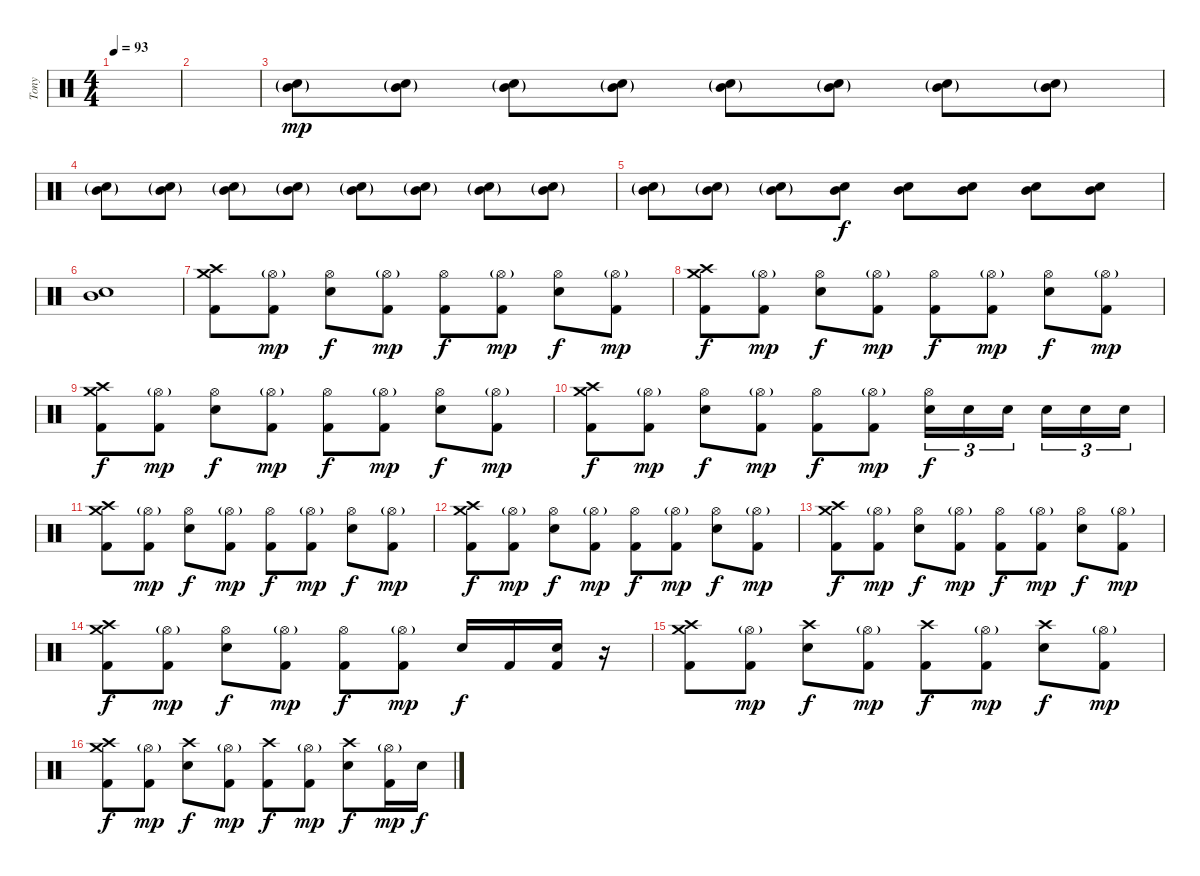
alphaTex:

\track ("Tony" "Tony") {instrument percussion}
\staff {score}
\articulation defaults
\ts (4 4)
\tempo 93
\clef neutral
\ks c
|
|
("Electric Snare (hit)"{g} "Mid Tom (hit)"{g}).8{dy mp} ("Electric Snare (hit)"{g} "Mid Tom (hit)"{g}).8 ("Electric Snare (hit)"{g} "Mid Tom (hit)"{g}).8 ("Electric Snare (hit)"{g} "Mid Tom (hit)"{g}).8 ("Electric Snare (hit)"{g} "Mid Tom (hit)"{g}).8 ("Electric Snare (hit)"{g} "Mid Tom (hit)"{g}).8 ("Electric Snare (hit)"{g} "Mid Tom (hit)"{g}).8 ("Electric Snare (hit)"{g} "Mid Tom (hit)"{g}).8 |
("Electric Snare (hit)"{g} "Mid Tom (hit)"{g}).8 ("Electric Snare (hit)"{g} "Mid Tom (hit)"{g}).8 ("Electric Snare (hit)"{g} "Mid Tom (hit)"{g}).8 ("Electric Snare (hit)"{g} "Mid Tom (hit)"{g}).8 ("Electric Snare (hit)"{g} "Mid Tom (hit)"{g}).8 ("Electric Snare (hit)"{g} "Mid Tom (hit)"{g}).8 ("Electric Snare (hit)"{g} "Mid Tom (hit)"{g}).8 ("Electric Snare (hit)"{g} "Mid Tom (hit)"{g}).8 |
("Electric Snare (hit)"{g} "Mid Tom (hit)"{g}).8 ("Electric Snare (hit)"{g} "Mid Tom (hit)"{g}).8 ("Electric Snare (hit)"{g} "Mid Tom (hit)"{g}).8 ("Electric Snare (hit)" "Mid Tom (hit)").8{dy f} ("Electric Snare (hit)" "Mid Tom (hit)").8 ("Electric Snare (hit)" "Mid Tom (hit)").8 ("Electric Snare (hit)" "Mid Tom (hit)").8 ("Electric Snare (hit)" "Mid Tom (hit)").8 |
("Electric Snare (hit)" "Mid Tom (hit)").1 |
("Crash high (hit)" "Crash medium (hit)" "Kick (hit) 2").8 ("Hi-Hat (open)"{g} "Kick (hit) 2").8{dy mp} ("Hi-Hat (open)" "Electric Snare (hit)").8{dy f} ("Hi-Hat (open)"{g} "Kick (hit) 2").8{dy mp} ("Hi-Hat (open)" "Kick (hit) 2").8{dy f} ("Hi-Hat (open)"{g} "Kick (hit) 2").8{dy mp} ("Hi-Hat (open)" "Electric Snare (hit)").8{dy f} ("Hi-Hat (open)"{g} "Kick (hit) 2").8{dy mp} |
("Crash high (hit)" "Crash medium (hit)" "Kick (hit) 2").8{dy f} ("Hi-Hat (open)"{g} "Kick (hit) 2").8{dy mp} ("Hi-Hat (open)" "Electric Snare (hit)").8{dy f} ("Hi-Hat (open)"{g} "Kick (hit) 2").8{dy mp} ("Hi-Hat (open)" "Kick (hit) 2").8{dy f} ("Hi-Hat (open)"{g} "Kick (hit) 2").8{dy mp} ("Hi-Hat (open)" "Electric Snare (hit)").8{dy f} ("Hi-Hat (open)"{g} "Kick (hit) 2").8{dy mp} |
("Crash high (hit)" "Crash medium (hit)" "Kick (hit) 2").8{dy f} ("Hi-Hat (open)"{g} "Kick (hit) 2").8{dy mp} ("Hi-Hat (open)" "Electric Snare (hit)").8{dy f} ("Hi-Hat (open)"{g} "Kick (hit) 2").8{dy mp} ("Hi-Hat (open)" "Kick (hit) 2").8{dy f} ("Hi-Hat (open)"{g} "Kick (hit) 2").8{dy mp} ("Hi-Hat (open)" "Electric Snare (hit)").8{dy f} ("Hi-Hat (open)"{g} "Kick (hit) 2").8{dy mp} |
("Crash high (hit)" "Crash medium (hit)" "Kick (hit) 2").8{dy f} ("Hi-Hat (open)"{g} "Kick (hit) 2").8{dy mp} ("Hi-Hat (open)" "Electric Snare (hit)").8{dy f} ("Hi-Hat (open)"{g} "Kick (hit) 2").8{dy mp} ("Hi-Hat (open)" "Kick (hit) 2").8{dy f} ("Hi-Hat (open)"{g} "Kick (hit) 2").8{dy mp} ("Hi-Hat (open)" "Electric Snare (hit)").16{tu (3 2) dy f} "Electric Snare (hit)".16{tu (3 2)} "Electric Snare (hit)".16{tu (3 2) beam splitsecondary} "Electric Snare (hit)".16{tu (3 2)} "Electric Snare (hit)".16{tu (3 2)} "Electric Snare (hit)".16{tu (3 2)} |
("Crash high (hit)" "Crash medium (hit)" "Kick (hit) 2").8 ("Hi-Hat (open)"{g} "Kick (hit) 2").8{dy mp} ("Hi-Hat (open)" "Electric Snare (hit)").8{dy f} ("Hi-Hat (open)"{g} "Kick (hit) 2").8{dy mp} ("Hi-Hat (open)" "Kick (hit) 2").8{dy f} ("Hi-Hat (open)"{g} "Kick (hit) 2").8{dy mp} ("Hi-Hat (open)" "Electric Snare (hit)").8{dy f} ("Hi-Hat (open)"{g} "Kick (hit) 2").8{dy mp} |
("Crash high (hit)" "Crash medium (hit)" "Kick (hit) 2").8{dy f} ("Hi-Hat (open)"{g} "Kick (hit) 2").8{dy mp} ("Hi-Hat (open)" "Electric Snare (hit)").8{dy f} ("Hi-Hat (open)"{g} "Kick (hit) 2").8{dy mp} ("Hi-Hat (open)" "Kick (hit) 2").8{dy f} ("Hi-Hat (open)"{g} "Kick (hit) 2").8{dy mp} ("Hi-Hat (open)" "Electric Snare (hit)").8{dy f} ("Hi-Hat (open)"{g} "Kick (hit) 2").8{dy mp} |
("Crash high (hit)" "Crash medium (hit)" "Kick (hit) 2").8{dy f} ("Hi-Hat (open)"{g} "Kick (hit) 2").8{dy mp} ("Hi-Hat (open)" "Electric Snare (hit)").8{dy f} ("Hi-Hat (open)"{g} "Kick (hit) 2").8{dy mp} ("Hi-Hat (open)" "Kick (hit) 2").8{dy f} ("Hi-Hat (open)"{g} "Kick (hit) 2").8{dy mp} ("Hi-Hat (open)" "Electric Snare (hit)").8{dy f} ("Hi-Hat (open)"{g} "Kick (hit) 2").8{dy mp} |
("Crash high (hit)" "Crash medium (hit)" "Kick (hit) 2").8{dy f} ("Hi-Hat (open)"{g} "Kick (hit) 2").8{dy mp} ("Hi-Hat (open)" "Electric Snare (hit)").8{dy f} ("Hi-Hat (open)"{g} "Kick (hit) 2").8{dy mp} ("Hi-Hat (open)" "Kick (hit) 2").8{dy f} ("Hi-Hat (open)"{g} "Kick (hit) 2").8{dy mp} "Electric Snare (hit)".16{dy f} "Kick (hit) 2".16 ("Electric Snare (hit)" "Kick (hit) 2").16 r.16 |
("Crash high (hit)" "Crash medium (hit)" "Kick (hit) 2").8 ("Hi-Hat (open)"{g} "Kick (hit) 2").8{dy mp} ("Crash high (hit)" "Electric Snare (hit)").8{dy f} ("Hi-Hat (open)"{g} "Kick (hit) 2").8{dy mp} ("Crash high (hit)" "Kick (hit) 2").8{dy f} ("Hi-Hat (open)"{g} "Kick (hit) 2").8{dy mp} ("Crash high (hit)" "Electric Snare (hit)").8{dy f} ("Hi-Hat (open)"{g} "Kick (hit) 2").8{dy mp} |
("Crash high (hit)" "Crash medium (hit)" "Kick (hit) 2").8{dy f} ("Hi-Hat (open)"{g} "Kick (hit) 2").8{dy mp} ("Crash high (hit)" "Electric Snare (hit)").8{dy f} ("Hi-Hat (open)"{g} "Kick (hit) 2").8{dy mp} ("Crash high (hit)" "Kick (hit) 2").8{dy f} ("Hi-Hat (open)"{g} "Kick (hit) 2").8{dy mp} ("Crash high (hit)" "Electric Snare (hit)").8{dy f} ("Hi-Hat (open)"{g} "Kick (hit) 2").16{dy mp} "Electric Snare (hit)".16{dy f}
